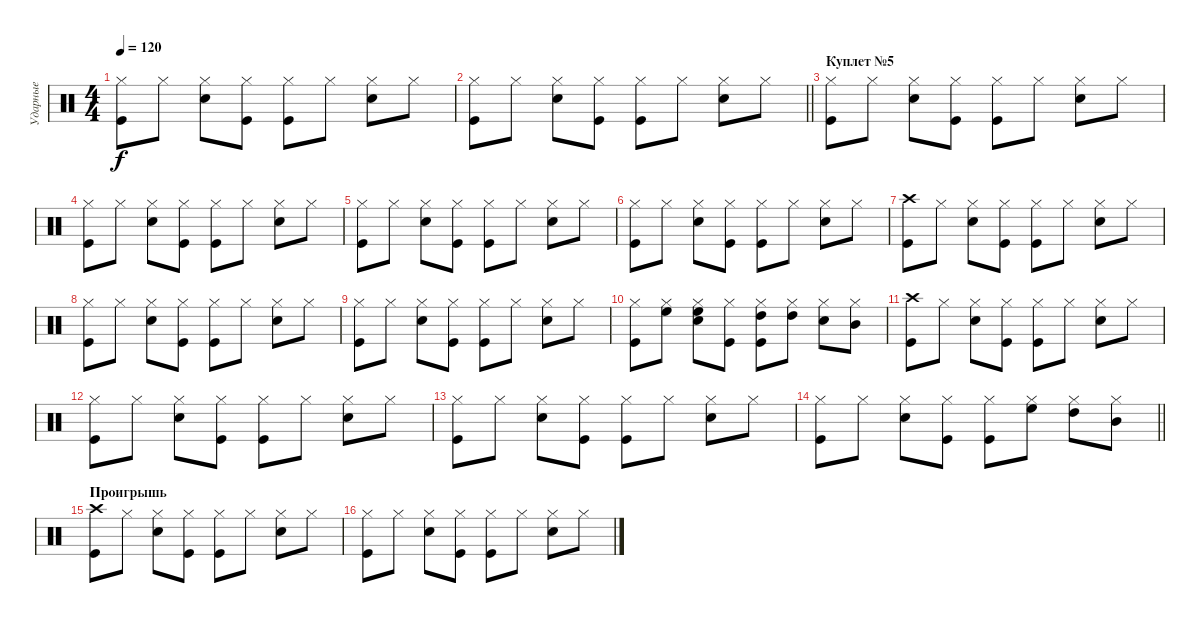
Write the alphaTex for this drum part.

\track ("Ударные" "Ударные") {instrument percussion}
\staff {score}
\articulation defaults
\ts (4 4)
\tempo 120
\clef neutral
\ks c
("Hi-Hat (closed)" "Kick (hit)").8{dy f} "Hi-Hat (closed)".8 ("Hi-Hat (closed)" "Snare (hit) 2").8 ("Hi-Hat (closed)" "Kick (hit)").8 ("Hi-Hat (closed)" "Kick (hit)").8 "Hi-Hat (closed)".8 ("Hi-Hat (closed)" "Snare (hit) 2").8 "Hi-Hat (closed)".8 |
\barLineRight lightlight
("Hi-Hat (closed)" "Kick (hit)").8 "Hi-Hat (closed)".8 ("Hi-Hat (closed)" "Snare (hit) 2").8 ("Hi-Hat (closed)" "Kick (hit)").8 ("Hi-Hat (closed)" "Kick (hit)").8 "Hi-Hat (closed)".8 ("Hi-Hat (closed)" "Snare (hit) 2").8 "Hi-Hat (closed)".8 |
\section ("" "Куплет №5")
("Hi-Hat (closed)" "Kick (hit)").8 "Hi-Hat (closed)".8 ("Hi-Hat (closed)" "Snare (hit) 2").8 ("Hi-Hat (closed)" "Kick (hit)").8 ("Hi-Hat (closed)" "Kick (hit)").8 "Hi-Hat (closed)".8 ("Hi-Hat (closed)" "Snare (hit) 2").8 "Hi-Hat (closed)".8 |
("Hi-Hat (closed)" "Kick (hit)").8 "Hi-Hat (closed)".8 ("Hi-Hat (closed)" "Snare (hit) 2").8 ("Hi-Hat (closed)" "Kick (hit)").8 ("Hi-Hat (closed)" "Kick (hit)").8 "Hi-Hat (closed)".8 ("Hi-Hat (closed)" "Snare (hit) 2").8 "Hi-Hat (closed)".8 |
("Hi-Hat (closed)" "Kick (hit)").8 "Hi-Hat (closed)".8 ("Hi-Hat (closed)" "Snare (hit) 2").8 ("Hi-Hat (closed)" "Kick (hit)").8 ("Hi-Hat (closed)" "Kick (hit)").8 "Hi-Hat (closed)".8 ("Hi-Hat (closed)" "Snare (hit) 2").8 "Hi-Hat (closed)".8 |
("Hi-Hat (closed)" "Kick (hit)").8 "Hi-Hat (closed)".8 ("Hi-Hat (closed)" "Snare (hit) 2").8 ("Hi-Hat (closed)" "Kick (hit)").8 ("Hi-Hat (closed)" "Kick (hit)").8 "Hi-Hat (closed)".8 ("Hi-Hat (closed)" "Snare (hit) 2").8 "Hi-Hat (closed)".8 |
("Crash high (hit)" "Kick (hit)").8 "Hi-Hat (closed)".8 ("Hi-Hat (closed)" "Snare (hit) 2").8 ("Hi-Hat (closed)" "Kick (hit)").8 ("Hi-Hat (closed)" "Kick (hit)").8 "Hi-Hat (closed)".8 ("Hi-Hat (closed)" "Snare (hit) 2").8 "Hi-Hat (closed)".8 |
("Hi-Hat (closed)" "Kick (hit)").8 "Hi-Hat (closed)".8 ("Hi-Hat (closed)" "Snare (hit) 2").8 ("Hi-Hat (closed)" "Kick (hit)").8 ("Hi-Hat (closed)" "Kick (hit)").8 "Hi-Hat (closed)".8 ("Hi-Hat (closed)" "Snare (hit) 2").8 "Hi-Hat (closed)".8 |
("Hi-Hat (closed)" "Kick (hit)").8 "Hi-Hat (closed)".8 ("Hi-Hat (closed)" "Snare (hit) 2").8 ("Hi-Hat (closed)" "Kick (hit)").8 ("Hi-Hat (closed)" "Kick (hit)").8 "Hi-Hat (closed)".8 ("Hi-Hat (closed)" "Snare (hit) 2").8 "Hi-Hat (closed)".8 |
("Hi-Hat (closed)" "Kick (hit)").8 ("Hi-Hat (closed)" "High Floor Tom (hit)").8 ("Hi-Hat (closed)" "High Floor Tom (hit)" "Snare (hit) 2").8 ("Hi-Hat (closed)" "Kick (hit)").8 ("Hi-Hat (closed)" "High Tom (hit)" "Kick (hit)").8 ("Hi-Hat (closed)" "High Tom (hit)").8 ("Hi-Hat (closed)" "Snare (hit) 2").8 ("Hi-Hat (closed)" "Mid Tom (hit)").8 |
("Crash high (hit)" "Kick (hit)").8 "Hi-Hat (closed)".8 ("Hi-Hat (closed)" "Snare (hit) 2").8 ("Hi-Hat (closed)" "Kick (hit)").8 ("Hi-Hat (closed)" "Kick (hit)").8 "Hi-Hat (closed)".8 ("Hi-Hat (closed)" "Snare (hit) 2").8 "Hi-Hat (closed)".8 |
("Hi-Hat (closed)" "Kick (hit)").8 "Hi-Hat (closed)".8 ("Hi-Hat (closed)" "Snare (hit) 2").8 ("Hi-Hat (closed)" "Kick (hit)").8 ("Hi-Hat (closed)" "Kick (hit)").8 "Hi-Hat (closed)".8 ("Hi-Hat (closed)" "Snare (hit) 2").8 "Hi-Hat (closed)".8 |
("Hi-Hat (closed)" "Kick (hit)").8 "Hi-Hat (closed)".8 ("Hi-Hat (closed)" "Snare (hit) 2").8 ("Hi-Hat (closed)" "Kick (hit)").8 ("Hi-Hat (closed)" "Kick (hit)").8 "Hi-Hat (closed)".8 ("Hi-Hat (closed)" "Snare (hit) 2").8 "Hi-Hat (closed)".8 |
\barLineRight lightlight
("Hi-Hat (closed)" "Kick (hit)").8 "Hi-Hat (closed)".8 ("Hi-Hat (closed)" "Snare (hit) 2").8 ("Hi-Hat (closed)" "Kick (hit)").8 ("Hi-Hat (closed)" "Kick (hit)").8 ("Hi-Hat (closed)" "High Floor Tom (hit)").8 ("Hi-Hat (closed)" "High Tom (hit)").8 ("Hi-Hat (closed)" "Mid Tom (hit)").8 |
\section ("" "Проигрышь")
("Crash high (hit)" "Kick (hit)").8 "Hi-Hat (closed)".8 ("Hi-Hat (closed)" "Snare (hit) 2").8 ("Hi-Hat (closed)" "Kick (hit)").8 ("Hi-Hat (closed)" "Kick (hit)").8 "Hi-Hat (closed)".8 ("Hi-Hat (closed)" "Snare (hit) 2").8 "Hi-Hat (closed)".8 |
("Hi-Hat (closed)" "Kick (hit)").8 "Hi-Hat (closed)".8 ("Hi-Hat (closed)" "Snare (hit) 2").8 ("Hi-Hat (closed)" "Kick (hit)").8 ("Hi-Hat (closed)" "Kick (hit)").8 "Hi-Hat (closed)".8 ("Hi-Hat (closed)" "Snare (hit) 2").8 "Hi-Hat (closed)".8
